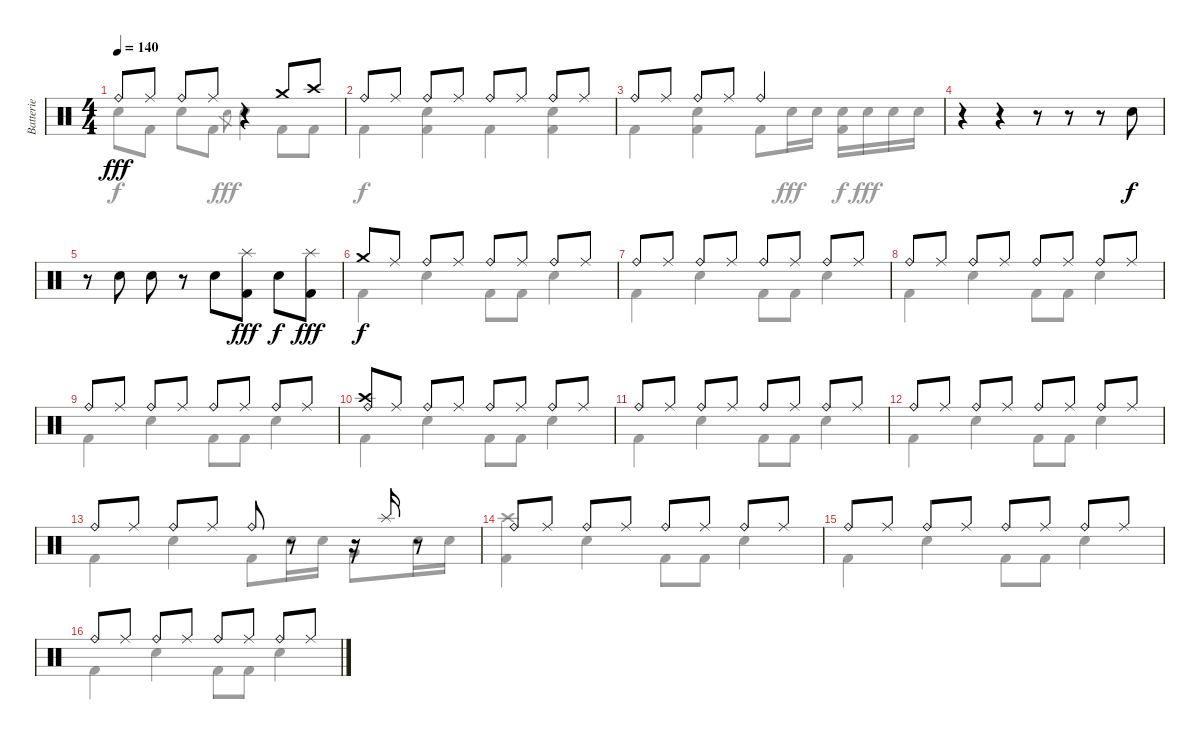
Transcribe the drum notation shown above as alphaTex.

\track ("Batterie" "Batterie") {instrument percussion}
\staff {score}
\articulation defaults
\voice
\ts (4 4)
\tempo 140
\clef neutral
\ks c "Ride (bell)".8{dy fff} "Ride (middle)".8 "Ride (bell)".8 "Ride (middle)".8
r.4 "Crash medium (hit)".8 "Crash high (hit)".8 |
"Ride (bell)".8 "Ride (middle)".8 "Ride (bell)".8 "Ride (middle)".8 "Ride (bell)".8 "Ride (middle)".8 "Ride (bell)".8 "Ride (middle)".8 |
"Ride (bell)".8 "Ride (middle)".8 "Ride (bell)".8 "Ride (middle)".8 "Ride (bell)".2 |
r.4 r.4 r.8 r.8 r.8 "Snare (hit) 2".8{dy f} |
r.8 "Snare (hit) 2".8 "Snare (hit) 2".8 r.8 "Snare (hit) 2".8 ("Splash (hit)" "Kick (hit) 2").8{dy fff} "Snare (hit) 2".8{dy f} ("Splash (hit)" "Kick (hit) 2").8{dy fff} |
"Crash medium (hit)".8{dy f} "Ride (middle)".8 "Ride (bell)".8 "Ride (middle)".8 "Ride (bell)".8 "Ride (middle)".8 "Ride (bell)".8 "Ride (middle)".8 |
"Ride (bell)".8 "Ride (middle)".8 "Ride (bell)".8 "Ride (middle)".8 "Ride (bell)".8 "Ride (middle)".8 "Ride (bell)".8 "Ride (middle)".8 |
"Ride (bell)".8 "Ride (middle)".8 "Ride (bell)".8 "Ride (middle)".8 "Ride (bell)".8 "Ride (middle)".8 "Ride (bell)".8 "Ride (middle)".8 |
"Ride (bell)".8 "Ride (middle)".8 "Ride (bell)".8 "Ride (middle)".8 "Ride (bell)".8 "Ride (middle)".8 "Ride (bell)".8 "Ride (middle)".8 |
("Crash high (hit)" "Ride (bell)").8 "Ride (middle)".8 "Ride (bell)".8 "Ride (middle)".8 "Ride (bell)".8 "Ride (middle)".8 "Ride (bell)".8 "Ride (middle)".8 |
"Ride (bell)".8 "Ride (middle)".8 "Ride (bell)".8 "Ride (middle)".8 "Ride (bell)".8 "Ride (middle)".8 "Ride (bell)".8 "Ride (middle)".8 |
"Ride (bell)".8 "Ride (middle)".8 "Ride (bell)".8 "Ride (middle)".8 "Ride (bell)".8 "Ride (middle)".8 "Ride (bell)".8 "Ride (middle)".8 |
"Ride (bell)".8 "Ride (middle)".8 "Ride (bell)".8 "Ride (middle)".8 "Ride (bell)".8 r.8 r.16 "Splash (hit)".16 r.8 |
"Ride (bell)".8 "Ride (middle)".8 "Ride (bell)".8 "Ride (middle)".8 "Ride (bell)".8 "Ride (middle)".8 "Ride (bell)".8 "Ride (middle)".8 |
"Ride (bell)".8 "Ride (middle)".8 "Ride (bell)".8 "Ride (middle)".8 "Ride (bell)".8 "Ride (middle)".8 "Ride (bell)".8 "Ride (middle)".8 |
"Ride (bell)".8 "Ride (middle)".8 "Ride (bell)".8 "Ride (middle)".8 "Ride (bell)".8 "Ride (middle)".8 "Ride (bell)".8 "Ride (middle)".8
\voice
\clef neutral
\ottava regular
\simile none
\ks c "Electric Snare (hit)".8{dy f} "Kick (hit) 2".8 "Electric Snare (hit)".8 "Kick (hit) 2".8 "Snare (hit) 2".8{gr dy fff} "Snare (hit) 2".4 "Kick (hit) 2".8 "Kick (hit) 2".8
|
"Kick (hit) 2".4{dy f} ("Electric Snare (hit)" "Kick (hit) 2").4 "Kick (hit) 2".4 ("Electric Snare (hit)" "Kick (hit) 2").4 |
"Kick (hit) 2".4 ("Electric Snare (hit)" "Kick (hit) 2").4 "Kick (hit) 2".8 "Electric Snare (hit)".16{dy fff} "Electric Snare (hit)".16 ("Electric Snare (hit)" "Kick (hit) 2").16{dy f} "Electric Snare (hit)".16{dy fff} "Electric Snare (hit)".16 "Electric Snare (hit)".16 |
|
|
"Kick (hit) 2".4{dy f} "Electric Snare (hit)".4 "Kick (hit) 2".8 "Kick (hit) 2".8 "Electric Snare (hit)".4 |
"Kick (hit) 2".4 "Electric Snare (hit)".4 "Kick (hit) 2".8 "Kick (hit) 2".8 "Electric Snare (hit)".4 |
"Kick (hit) 2".4 "Electric Snare (hit)".4 "Kick (hit) 2".8 "Kick (hit) 2".8 "Electric Snare (hit)".4 |
"Kick (hit) 2".4 "Electric Snare (hit)".4 "Kick (hit) 2".8 "Kick (hit) 2".8 "Electric Snare (hit)".4 |
"Kick (hit) 2".4 "Electric Snare (hit)".4 "Kick (hit) 2".8 "Kick (hit) 2".8 "Electric Snare (hit)".4 |
"Kick (hit) 2".4 "Electric Snare (hit)".4 "Kick (hit) 2".8 "Kick (hit) 2".8 "Electric Snare (hit)".4 |
"Kick (hit) 2".4 "Electric Snare (hit)".4 "Kick (hit) 2".8 "Kick (hit) 2".8 "Electric Snare (hit)".4 |
"Kick (hit) 2".4 "Electric Snare (hit)".4 "Kick (hit) 2".8 "Electric Snare (hit)".16 "Electric Snare (hit)".16 "Very Low Tom (hit)".8 "Electric Snare (hit)".16 "Electric Snare (hit)".16 |
("Crash high (hit)" "Kick (hit) 2").4 "Electric Snare (hit)".4 "Kick (hit) 2".8 "Kick (hit) 2".8 "Electric Snare (hit)".4 |
"Kick (hit) 2".4 "Electric Snare (hit)".4 "Kick (hit) 2".8 "Kick (hit) 2".8 "Electric Snare (hit)".4 |
"Kick (hit) 2".4 "Electric Snare (hit)".4 "Kick (hit) 2".8 "Kick (hit) 2".8 "Electric Snare (hit)".4
